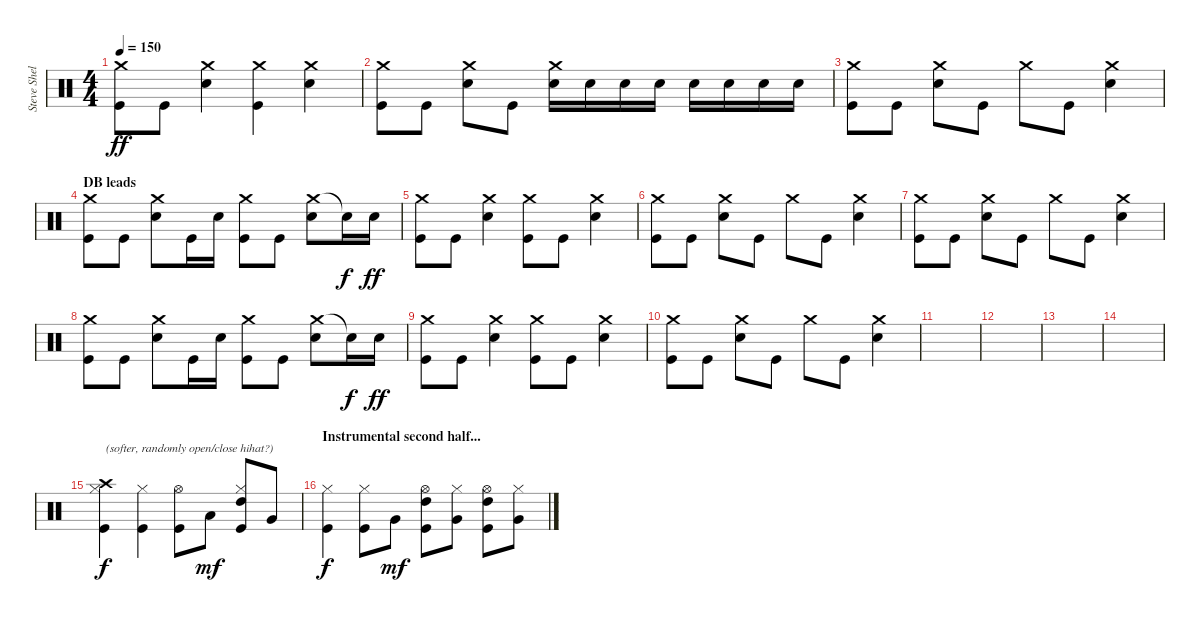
\track ("Steve Shelley" "Steve Shel") {instrument percussion}
\staff {score}
\articulation defaults
\ts (4 4)
\tempo 150
\clef neutral
\ks c
("Crash medium (hit)" "Kick (hit)").8{dy ff} "Kick (hit)".8 ("Crash medium (hit)" "Electric Snare (hit)").4 ("Crash medium (hit)" "Kick (hit)").4 ("Crash medium (hit)" "Electric Snare (hit)").4 |
("Crash medium (hit)" "Kick (hit)").8 "Kick (hit)".8 ("Crash medium (hit)" "Electric Snare (hit)").8 "Kick (hit)".8 ("Crash medium (hit)" "Electric Snare (hit)").16 "Electric Snare (hit)".16 "Electric Snare (hit)".16 "Electric Snare (hit)".16 "Electric Snare (hit)".16 "Electric Snare (hit)".16 "Electric Snare (hit)".16 "Electric Snare (hit)".16 |
("Crash medium (hit)" "Kick (hit)").8 "Kick (hit)".8 ("Crash medium (hit)" "Electric Snare (hit)").8 "Kick (hit)".8 "Crash medium (hit)".8 "Kick (hit)".8 ("Crash medium (hit)" "Electric Snare (hit)").4 |
\section ("" "DB leads")
("Crash medium (hit)" "Kick (hit)").8 "Kick (hit)".8 ("Crash medium (hit)" "Electric Snare (hit)").8 "Kick (hit)".16 "Electric Snare (hit)".16 ("Crash medium (hit)" "Kick (hit)").8 "Kick (hit)".8 ("Crash medium (hit)" "Electric Snare (hit)").8 "Snare (hit)"{t}.16{dy f} "Electric Snare (hit)".16{dy ff} |
("Crash medium (hit)" "Kick (hit)").8 "Kick (hit)".8 ("Crash medium (hit)" "Electric Snare (hit)").4 ("Crash medium (hit)" "Kick (hit)").8 "Kick (hit)".8 ("Crash medium (hit)" "Electric Snare (hit)").4 |
("Crash medium (hit)" "Kick (hit)").8 "Kick (hit)".8 ("Crash medium (hit)" "Electric Snare (hit)").8 "Kick (hit)".8 "Crash medium (hit)".8 "Kick (hit)".8 ("Crash medium (hit)" "Electric Snare (hit)").4 |
("Crash medium (hit)" "Kick (hit)").8 "Kick (hit)".8 ("Crash medium (hit)" "Electric Snare (hit)").8 "Kick (hit)".8 "Crash medium (hit)".8 "Kick (hit)".8 ("Crash medium (hit)" "Electric Snare (hit)").4 |
("Crash medium (hit)" "Kick (hit)").8 "Kick (hit)".8 ("Crash medium (hit)" "Electric Snare (hit)").8 "Kick (hit)".16 "Electric Snare (hit)".16 ("Crash medium (hit)" "Kick (hit)").8 "Kick (hit)".8 ("Crash medium (hit)" "Electric Snare (hit)").8 "Snare (hit)"{t}.16{dy f} "Electric Snare (hit)".16{dy ff} |
("Crash medium (hit)" "Kick (hit)").8 "Kick (hit)".8 ("Crash medium (hit)" "Electric Snare (hit)").4 ("Crash medium (hit)" "Kick (hit)").8 "Kick (hit)".8 ("Crash medium (hit)" "Electric Snare (hit)").4 |
("Crash medium (hit)" "Kick (hit)").8 "Kick (hit)".8 ("Crash medium (hit)" "Electric Snare (hit)").8 "Kick (hit)".8 "Crash medium (hit)".8 "Kick (hit)".8 ("Crash medium (hit)" "Electric Snare (hit)").4 |
|
|
|
|
("Hi-Hat (closed)" "Crash high (hit)" "Kick (hit)").4{txt "(softer, randomly open/close hihat?)" dy f} ("Hi-Hat (closed)" "Kick (hit)").4 ("Hi-Hat (open)" "Kick (hit)").8 "Low Tom (hit)".8{dy mf} ("Hi-Hat (closed)" "High Tom (hit)" "Kick (hit)").8 "Very Low Tom (hit)".8 |
\section ("" "Instrumental second half...")
("Hi-Hat (closed)" "Kick (hit)").4{dy f} ("Hi-Hat (closed)" "Kick (hit)").8 "Very Low Tom (hit)".8{dy mf} ("Hi-Hat (open)" "High Tom (hit)" "Kick (hit)").8 ("Hi-Hat (closed)" "Very Low Tom (hit)").8 ("Hi-Hat (open)" "High Tom (hit)" "Kick (hit)").8 ("Hi-Hat (closed)" "Very Low Tom (hit)").8
